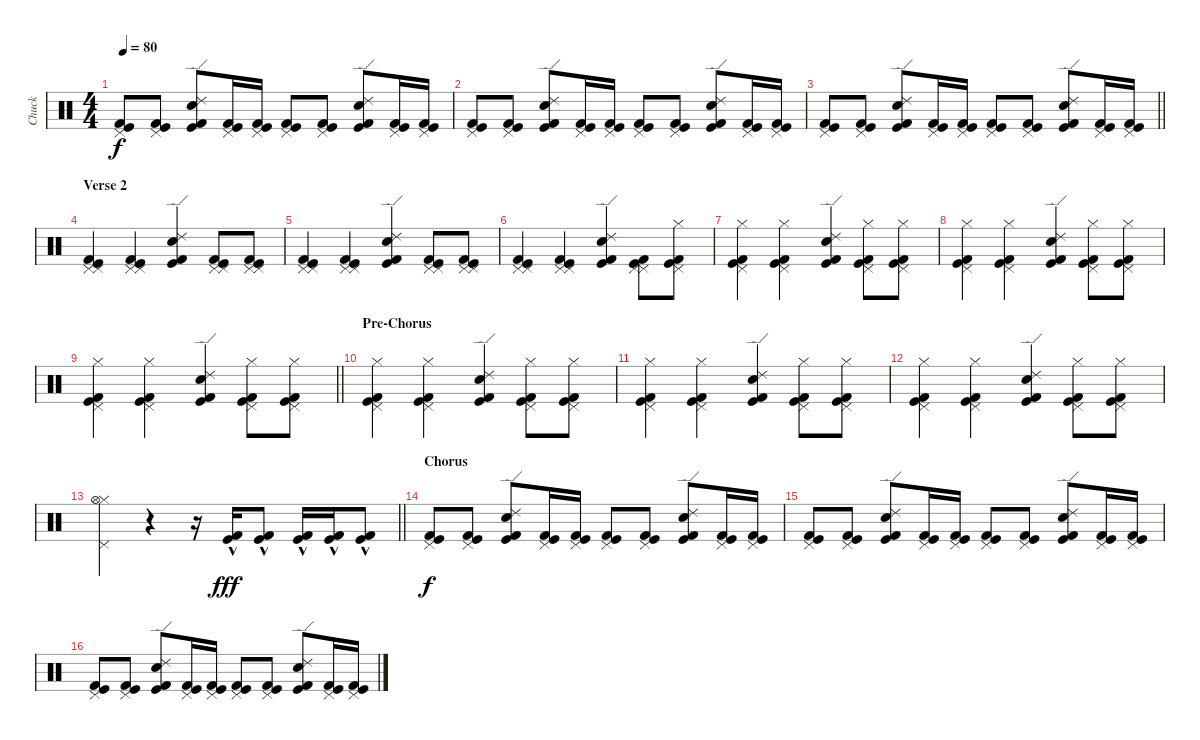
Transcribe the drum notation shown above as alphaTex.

\track ("Chuck" "Chuck") {instrument percussion}
\staff {score}
\articulation defaults
\ts (4 4)
\tempo 80
\clef neutral
\ks c
("Pedal Hi-Hat (hit)" "Kick (hit)" "Kick (hit) 2").8{dy f} ("Pedal Hi-Hat (hit)" "Kick (hit)" "Kick (hit) 2").8 ("Ride (edge) 2" "Kick (hit)" "Kick (hit) 2" "Electric Snare (hit)").8 ("Pedal Hi-Hat (hit)" "Kick (hit)" "Kick (hit) 2").16 ("Pedal Hi-Hat (hit)" "Kick (hit)" "Kick (hit) 2").16 ("Pedal Hi-Hat (hit)" "Kick (hit)" "Kick (hit) 2").8 ("Pedal Hi-Hat (hit)" "Kick (hit)" "Kick (hit) 2").8 ("Ride (edge) 2" "Kick (hit)" "Kick (hit) 2" "Electric Snare (hit)").8 ("Pedal Hi-Hat (hit)" "Kick (hit)" "Kick (hit) 2").16 ("Pedal Hi-Hat (hit)" "Kick (hit)" "Kick (hit) 2").16 |
("Pedal Hi-Hat (hit)" "Kick (hit)" "Kick (hit) 2").8 ("Pedal Hi-Hat (hit)" "Kick (hit)" "Kick (hit) 2").8 ("Ride (edge) 2" "Kick (hit)" "Kick (hit) 2" "Electric Snare (hit)").8 ("Pedal Hi-Hat (hit)" "Kick (hit)" "Kick (hit) 2").16 ("Pedal Hi-Hat (hit)" "Kick (hit)" "Kick (hit) 2").16 ("Pedal Hi-Hat (hit)" "Kick (hit)" "Kick (hit) 2").8 ("Pedal Hi-Hat (hit)" "Kick (hit)" "Kick (hit) 2").8 ("Ride (edge) 2" "Kick (hit)" "Kick (hit) 2" "Electric Snare (hit)").8 ("Pedal Hi-Hat (hit)" "Kick (hit)" "Kick (hit) 2").16 ("Pedal Hi-Hat (hit)" "Kick (hit)" "Kick (hit) 2").16 |
\barLineRight lightlight
("Pedal Hi-Hat (hit)" "Kick (hit)" "Kick (hit) 2").8 ("Pedal Hi-Hat (hit)" "Kick (hit)" "Kick (hit) 2").8 ("Ride (edge) 2" "Kick (hit)" "Kick (hit) 2" "Electric Snare (hit)").8 ("Pedal Hi-Hat (hit)" "Kick (hit)" "Kick (hit) 2").16 ("Pedal Hi-Hat (hit)" "Kick (hit)" "Kick (hit) 2").16 ("Pedal Hi-Hat (hit)" "Kick (hit)" "Kick (hit) 2").8 ("Pedal Hi-Hat (hit)" "Kick (hit)" "Kick (hit) 2").8 ("Ride (edge) 2" "Kick (hit)" "Kick (hit) 2" "Electric Snare (hit)").8 ("Pedal Hi-Hat (hit)" "Kick (hit)" "Kick (hit) 2").16 ("Pedal Hi-Hat (hit)" "Kick (hit)" "Kick (hit) 2").16 |
\section ("" "Verse 2")
("Pedal Hi-Hat (hit)" "Kick (hit)" "Kick (hit) 2" "Pedal Hi-Hat (hit)").4 ("Pedal Hi-Hat (hit)" "Kick (hit)" "Kick (hit) 2" "Pedal Hi-Hat (hit)").4 ("Ride (edge) 2" "Kick (hit)" "Kick (hit) 2" "Electric Snare (hit)").4 ("Pedal Hi-Hat (hit)" "Kick (hit)" "Kick (hit) 2" "Pedal Hi-Hat (hit)").8 ("Pedal Hi-Hat (hit)" "Kick (hit)" "Kick (hit) 2" "Pedal Hi-Hat (hit)").8 |
("Pedal Hi-Hat (hit)" "Kick (hit)" "Kick (hit) 2" "Pedal Hi-Hat (hit)").4 ("Pedal Hi-Hat (hit)" "Kick (hit)" "Kick (hit) 2" "Pedal Hi-Hat (hit)").4 ("Ride (edge) 2" "Kick (hit)" "Kick (hit) 2" "Electric Snare (hit)").4 ("Pedal Hi-Hat (hit)" "Kick (hit)" "Kick (hit) 2" "Pedal Hi-Hat (hit)").8 ("Pedal Hi-Hat (hit)" "Kick (hit)" "Kick (hit) 2" "Pedal Hi-Hat (hit)").8 |
("Pedal Hi-Hat (hit)" "Kick (hit)" "Kick (hit) 2" "Pedal Hi-Hat (hit)").4 ("Pedal Hi-Hat (hit)" "Kick (hit)" "Kick (hit) 2" "Pedal Hi-Hat (hit)").4 ("Ride (edge) 2" "Kick (hit)" "Kick (hit) 2" "Electric Snare (hit)").4 ("Pedal Hi-Hat (hit)" "Kick (hit)" "Kick (hit) 2" "Pedal Hi-Hat (hit)").8 ("Pedal Hi-Hat (hit)" "Kick (hit)" "Kick (hit) 2" "Hi-Hat (closed)").8 |
("Pedal Hi-Hat (hit)" "Kick (hit)" "Kick (hit) 2" "Hi-Hat (closed)").4 ("Pedal Hi-Hat (hit)" "Kick (hit)" "Kick (hit) 2" "Hi-Hat (closed)").4 ("Ride (edge) 2" "Kick (hit)" "Kick (hit) 2" "Electric Snare (hit)").4 ("Pedal Hi-Hat (hit)" "Kick (hit)" "Kick (hit) 2" "Hi-Hat (closed)").8 ("Pedal Hi-Hat (hit)" "Kick (hit)" "Kick (hit) 2" "Hi-Hat (closed)").8 |
("Pedal Hi-Hat (hit)" "Kick (hit)" "Kick (hit) 2" "Hi-Hat (closed)").4 ("Pedal Hi-Hat (hit)" "Kick (hit)" "Kick (hit) 2" "Hi-Hat (closed)").4 ("Ride (edge) 2" "Kick (hit)" "Kick (hit) 2" "Electric Snare (hit)").4 ("Pedal Hi-Hat (hit)" "Kick (hit)" "Kick (hit) 2" "Hi-Hat (closed)").8 ("Pedal Hi-Hat (hit)" "Kick (hit)" "Kick (hit) 2" "Hi-Hat (closed)").8 |
\barLineRight lightlight
("Pedal Hi-Hat (hit)" "Kick (hit)" "Kick (hit) 2" "Hi-Hat (closed)").4 ("Pedal Hi-Hat (hit)" "Kick (hit)" "Kick (hit) 2" "Hi-Hat (closed)").4 ("Ride (edge) 2" "Kick (hit)" "Kick (hit) 2" "Electric Snare (hit)").4 ("Pedal Hi-Hat (hit)" "Kick (hit)" "Kick (hit) 2" "Hi-Hat (closed)").8 ("Pedal Hi-Hat (hit)" "Kick (hit)" "Kick (hit) 2" "Hi-Hat (closed)").8 |
\section ("" "Pre-Chorus")
("Pedal Hi-Hat (hit)" "Kick (hit)" "Kick (hit) 2" "Hi-Hat (closed)").4 ("Pedal Hi-Hat (hit)" "Kick (hit)" "Kick (hit) 2" "Hi-Hat (closed)").4 ("Ride (edge) 2" "Kick (hit)" "Kick (hit) 2" "Electric Snare (hit)").4 ("Pedal Hi-Hat (hit)" "Kick (hit)" "Kick (hit) 2" "Hi-Hat (closed)").8 ("Pedal Hi-Hat (hit)" "Kick (hit)" "Kick (hit) 2" "Hi-Hat (closed)").8 |
("Pedal Hi-Hat (hit)" "Kick (hit)" "Kick (hit) 2" "Hi-Hat (closed)").4 ("Pedal Hi-Hat (hit)" "Kick (hit)" "Kick (hit) 2" "Hi-Hat (closed)").4 ("Ride (edge) 2" "Kick (hit)" "Kick (hit) 2" "Electric Snare (hit)").4 ("Pedal Hi-Hat (hit)" "Kick (hit)" "Kick (hit) 2" "Hi-Hat (closed)").8 ("Pedal Hi-Hat (hit)" "Kick (hit)" "Kick (hit) 2" "Hi-Hat (closed)").8 |
("Pedal Hi-Hat (hit)" "Kick (hit)" "Kick (hit) 2" "Hi-Hat (closed)").4 ("Pedal Hi-Hat (hit)" "Kick (hit)" "Kick (hit) 2" "Hi-Hat (closed)").4 ("Ride (edge) 2" "Kick (hit)" "Kick (hit) 2" "Electric Snare (hit)").4 ("Pedal Hi-Hat (hit)" "Kick (hit)" "Kick (hit) 2" "Hi-Hat (closed)").8 ("Pedal Hi-Hat (hit)" "Kick (hit)" "Kick (hit) 2" "Hi-Hat (closed)").8 |
\barLineRight lightlight
("Hi-Hat (closed)" "Pedal Hi-Hat (hit)" "Hi-Hat (open)").4 r.4 r.16 ("Kick (hit)"{hac} "Kick (hit) 2"{hac}).16{dy fff} ("Kick (hit)"{hac} "Kick (hit) 2"{hac}).8 ("Kick (hit)"{hac} "Kick (hit) 2"{hac}).16 ("Kick (hit)"{hac} "Kick (hit) 2"{hac}).16 ("Kick (hit)"{hac} "Kick (hit) 2"{hac}).8 |
\section ("" "Chorus")
("Pedal Hi-Hat (hit)" "Kick (hit)" "Kick (hit) 2").8{dy f} ("Pedal Hi-Hat (hit)" "Kick (hit)" "Kick (hit) 2").8 ("Ride (edge) 2" "Kick (hit)" "Kick (hit) 2" "Electric Snare (hit)").8 ("Pedal Hi-Hat (hit)" "Kick (hit)" "Kick (hit) 2").16 ("Pedal Hi-Hat (hit)" "Kick (hit)" "Kick (hit) 2").16 ("Pedal Hi-Hat (hit)" "Kick (hit)" "Kick (hit) 2").8 ("Pedal Hi-Hat (hit)" "Kick (hit)" "Kick (hit) 2").8 ("Ride (edge) 2" "Kick (hit)" "Kick (hit) 2" "Electric Snare (hit)").8 ("Pedal Hi-Hat (hit)" "Kick (hit)" "Kick (hit) 2").16 ("Pedal Hi-Hat (hit)" "Kick (hit)" "Kick (hit) 2").16 |
("Pedal Hi-Hat (hit)" "Kick (hit)" "Kick (hit) 2").8 ("Pedal Hi-Hat (hit)" "Kick (hit)" "Kick (hit) 2").8 ("Ride (edge) 2" "Kick (hit)" "Kick (hit) 2" "Electric Snare (hit)").8 ("Pedal Hi-Hat (hit)" "Kick (hit)" "Kick (hit) 2").16 ("Pedal Hi-Hat (hit)" "Kick (hit)" "Kick (hit) 2").16 ("Pedal Hi-Hat (hit)" "Kick (hit)" "Kick (hit) 2").8 ("Pedal Hi-Hat (hit)" "Kick (hit)" "Kick (hit) 2").8 ("Ride (edge) 2" "Kick (hit)" "Kick (hit) 2" "Electric Snare (hit)").8 ("Pedal Hi-Hat (hit)" "Kick (hit)" "Kick (hit) 2").16 ("Pedal Hi-Hat (hit)" "Kick (hit)" "Kick (hit) 2").16 |
("Pedal Hi-Hat (hit)" "Kick (hit)" "Kick (hit) 2").8 ("Pedal Hi-Hat (hit)" "Kick (hit)" "Kick (hit) 2").8 ("Ride (edge) 2" "Kick (hit)" "Kick (hit) 2" "Electric Snare (hit)").8 ("Pedal Hi-Hat (hit)" "Kick (hit)" "Kick (hit) 2").16 ("Pedal Hi-Hat (hit)" "Kick (hit)" "Kick (hit) 2").16 ("Pedal Hi-Hat (hit)" "Kick (hit)" "Kick (hit) 2").8 ("Pedal Hi-Hat (hit)" "Kick (hit)" "Kick (hit) 2").8 ("Ride (edge) 2" "Kick (hit)" "Kick (hit) 2" "Electric Snare (hit)").8 ("Pedal Hi-Hat (hit)" "Kick (hit)" "Kick (hit) 2").16 ("Pedal Hi-Hat (hit)" "Kick (hit)" "Kick (hit) 2").16
